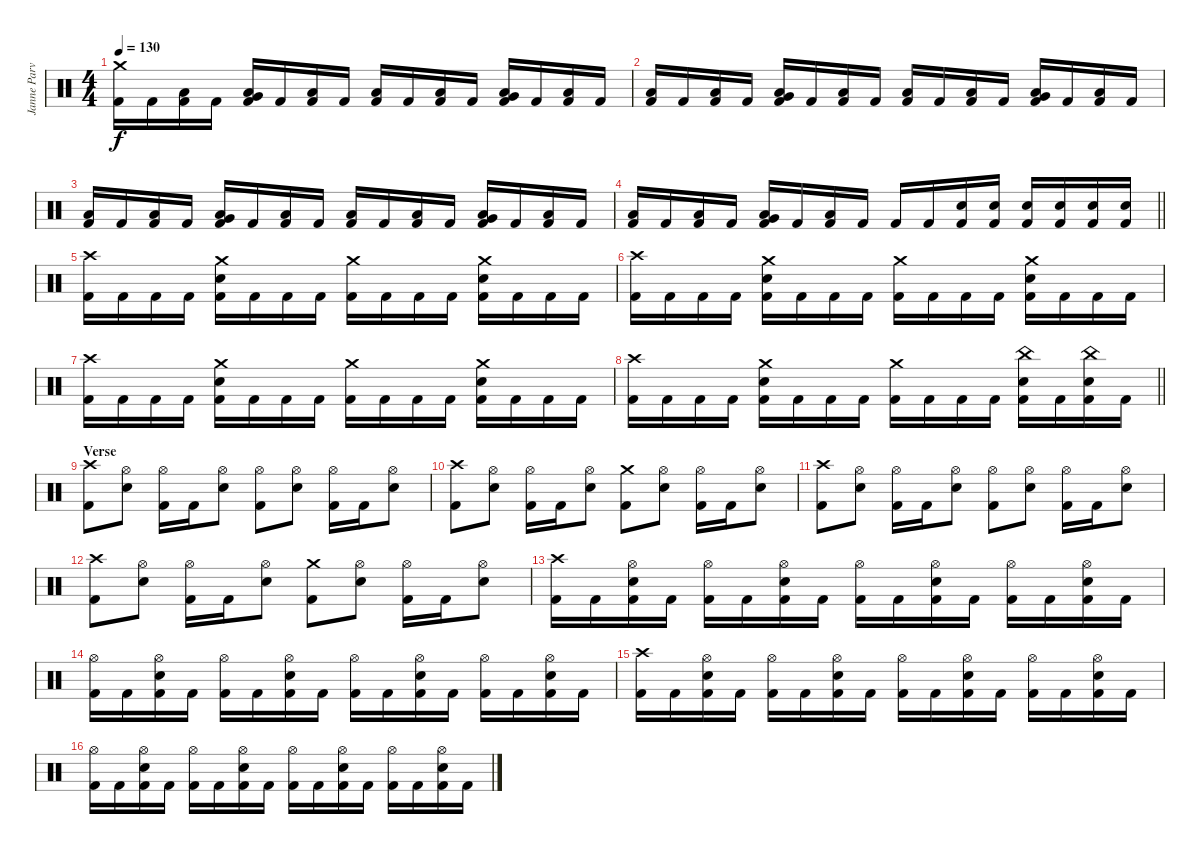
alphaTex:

\track ("Janne Parviainen" "Janne Parv") {instrument percussion}
\staff {score}
\articulation defaults
\ts (4 4)
\tempo 130
\clef neutral
\ks c
("Crash medium (hit)" "Kick (hit) 2").16{dy f} "Kick (hit) 2".16 ("Low Floor Tom (hit)" "Kick (hit) 2").16 "Kick (hit) 2".16 ("Very Low Tom (hit)" "Low Floor Tom (hit)" "Kick (hit) 2").16 "Kick (hit) 2".16 ("Low Floor Tom (hit)" "Kick (hit) 2").16 "Kick (hit) 2".16 ("Low Floor Tom (hit)" "Kick (hit) 2").16 "Kick (hit) 2".16 ("Low Floor Tom (hit)" "Kick (hit) 2").16 "Kick (hit) 2".16 ("Very Low Tom (hit)" "Low Floor Tom (hit)" "Kick (hit) 2").16 "Kick (hit) 2".16 ("Low Floor Tom (hit)" "Kick (hit) 2").16 "Kick (hit) 2".16 |
("Low Floor Tom (hit)" "Kick (hit) 2").16 "Kick (hit) 2".16 ("Low Floor Tom (hit)" "Kick (hit) 2").16 "Kick (hit) 2".16 ("Very Low Tom (hit)" "Low Floor Tom (hit)" "Kick (hit) 2").16 "Kick (hit) 2".16 ("Low Floor Tom (hit)" "Kick (hit) 2").16 "Kick (hit) 2".16 ("Low Floor Tom (hit)" "Kick (hit) 2").16 "Kick (hit) 2".16 ("Low Floor Tom (hit)" "Kick (hit) 2").16 "Kick (hit) 2".16 ("Very Low Tom (hit)" "Low Floor Tom (hit)" "Kick (hit) 2").16 "Kick (hit) 2".16 ("Low Floor Tom (hit)" "Kick (hit) 2").16 "Kick (hit) 2".16 |
("Low Floor Tom (hit)" "Kick (hit) 2").16 "Kick (hit) 2".16 ("Low Floor Tom (hit)" "Kick (hit) 2").16 "Kick (hit) 2".16 ("Very Low Tom (hit)" "Low Floor Tom (hit)" "Kick (hit) 2").16 "Kick (hit) 2".16 ("Low Floor Tom (hit)" "Kick (hit) 2").16 "Kick (hit) 2".16 ("Low Floor Tom (hit)" "Kick (hit) 2").16 "Kick (hit) 2".16 ("Low Floor Tom (hit)" "Kick (hit) 2").16 "Kick (hit) 2".16 ("Very Low Tom (hit)" "Low Floor Tom (hit)" "Kick (hit) 2").16 "Kick (hit) 2".16 ("Low Floor Tom (hit)" "Kick (hit) 2").16 "Kick (hit) 2".16 |
\barLineRight lightlight
("Low Floor Tom (hit)" "Kick (hit) 2").16 "Kick (hit) 2".16 ("Low Floor Tom (hit)" "Kick (hit) 2").16 "Kick (hit) 2".16 ("Very Low Tom (hit)" "Low Floor Tom (hit)" "Kick (hit) 2").16 "Kick (hit) 2".16 ("Low Floor Tom (hit)" "Kick (hit) 2").16 "Kick (hit) 2".16 "Kick (hit) 2".16 "Kick (hit) 2".16 ("Electric Snare (hit)" "Kick (hit) 2").16 ("Electric Snare (hit)" "Kick (hit) 2").16 ("Electric Snare (hit)" "Kick (hit) 2").16 ("Electric Snare (hit)" "Kick (hit) 2").16 ("Electric Snare (hit)" "Kick (hit) 2").16 ("Electric Snare (hit)" "Kick (hit) 2").16 |
\section ("" "")
("Crash high (hit)" "Kick (hit) 2").16 "Kick (hit) 2".16 "Kick (hit) 2".16 "Kick (hit) 2".16 ("Crash medium (hit)" "Electric Snare (hit)" "Kick (hit) 2").16 "Kick (hit) 2".16 "Kick (hit) 2".16 "Kick (hit) 2".16 ("Crash medium (hit)" "Kick (hit) 2").16 "Kick (hit) 2".16 "Kick (hit) 2".16 "Kick (hit) 2".16 ("Crash medium (hit)" "Electric Snare (hit)" "Kick (hit) 2").16 "Kick (hit) 2".16 "Kick (hit) 2".16 "Kick (hit) 2".16 |
("Crash high (hit)" "Kick (hit) 2").16 "Kick (hit) 2".16 "Kick (hit) 2".16 "Kick (hit) 2".16 ("Crash medium (hit)" "Electric Snare (hit)" "Kick (hit) 2").16 "Kick (hit) 2".16 "Kick (hit) 2".16 "Kick (hit) 2".16 ("Crash medium (hit)" "Kick (hit) 2").16 "Kick (hit) 2".16 "Kick (hit) 2".16 "Kick (hit) 2".16 ("Crash medium (hit)" "Electric Snare (hit)" "Kick (hit) 2").16 "Kick (hit) 2".16 "Kick (hit) 2".16 "Kick (hit) 2".16 |
("Crash high (hit)" "Kick (hit) 2").16 "Kick (hit) 2".16 "Kick (hit) 2".16 "Kick (hit) 2".16 ("Crash medium (hit)" "Electric Snare (hit)" "Kick (hit) 2").16 "Kick (hit) 2".16 "Kick (hit) 2".16 "Kick (hit) 2".16 ("Crash medium (hit)" "Kick (hit) 2").16 "Kick (hit) 2".16 "Kick (hit) 2".16 "Kick (hit) 2".16 ("Crash medium (hit)" "Electric Snare (hit)" "Kick (hit) 2").16 "Kick (hit) 2".16 "Kick (hit) 2".16 "Kick (hit) 2".16 |
\barLineRight lightlight
("Crash high (hit)" "Kick (hit) 2").16 "Kick (hit) 2".16 "Kick (hit) 2".16 "Kick (hit) 2".16 ("Crash medium (hit)" "Electric Snare (hit)" "Kick (hit) 2").16 "Kick (hit) 2".16 "Kick (hit) 2".16 "Kick (hit) 2".16 ("Crash medium (hit)" "Kick (hit) 2").16 "Kick (hit) 2".16 "Kick (hit) 2".16 "Kick (hit) 2".16 ("China (hit)" "Electric Snare (hit)" "Kick (hit) 2").16 "Kick (hit) 2".16 ("China (hit)" "Electric Snare (hit)" "Kick (hit) 2").16 "Kick (hit) 2".16 |
\section ("" "Verse")
("Crash high (hit)" "Kick (hit) 2").8 ("Hi-Hat (open)" "Electric Snare (hit)").8 ("Hi-Hat (open)" "Kick (hit) 2").16 "Kick (hit) 2".16 ("Hi-Hat (open)" "Electric Snare (hit)").8 ("Hi-Hat (open)" "Kick (hit) 2").8 ("Hi-Hat (open)" "Electric Snare (hit)").8 ("Hi-Hat (open)" "Kick (hit) 2").16 "Kick (hit) 2".16 ("Hi-Hat (open)" "Electric Snare (hit)").8 |
("Crash high (hit)" "Kick (hit) 2").8 ("Hi-Hat (open)" "Electric Snare (hit)").8 ("Hi-Hat (open)" "Kick (hit) 2").16 "Kick (hit) 2".16 ("Hi-Hat (open)" "Electric Snare (hit)").8 ("Crash medium (hit)" "Kick (hit) 2").8 ("Hi-Hat (open)" "Electric Snare (hit)").8 ("Hi-Hat (open)" "Kick (hit) 2").16 "Kick (hit) 2".16 ("Hi-Hat (open)" "Electric Snare (hit)").8 |
("Crash high (hit)" "Kick (hit) 2").8 ("Hi-Hat (open)" "Electric Snare (hit)").8 ("Hi-Hat (open)" "Kick (hit) 2").16 "Kick (hit) 2".16 ("Hi-Hat (open)" "Electric Snare (hit)").8 ("Hi-Hat (open)" "Kick (hit) 2").8 ("Hi-Hat (open)" "Electric Snare (hit)").8 ("Hi-Hat (open)" "Kick (hit) 2").16 "Kick (hit) 2".16 ("Hi-Hat (open)" "Electric Snare (hit)").8 |
("Crash high (hit)" "Kick (hit) 2").8 ("Hi-Hat (open)" "Electric Snare (hit)").8 ("Hi-Hat (open)" "Kick (hit) 2").16 "Kick (hit) 2".16 ("Hi-Hat (open)" "Electric Snare (hit)").8 ("Crash medium (hit)" "Kick (hit) 2").8 ("Hi-Hat (open)" "Electric Snare (hit)").8 ("Hi-Hat (open)" "Kick (hit) 2").16 "Kick (hit) 2".16 ("Hi-Hat (open)" "Electric Snare (hit)").8 |
("Crash high (hit)" "Kick (hit) 2").16 "Kick (hit) 2".16 ("Hi-Hat (open)" "Electric Snare (hit)" "Kick (hit) 2").16 "Kick (hit) 2".16 ("Hi-Hat (open)" "Kick (hit) 2").16 "Kick (hit) 2".16 ("Hi-Hat (open)" "Electric Snare (hit)" "Kick (hit) 2").16 "Kick (hit) 2".16 ("Hi-Hat (open)" "Kick (hit) 2").16 "Kick (hit) 2".16 ("Hi-Hat (open)" "Electric Snare (hit)" "Kick (hit) 2").16 "Kick (hit) 2".16 ("Hi-Hat (open)" "Kick (hit) 2").16 "Kick (hit) 2".16 ("Hi-Hat (open)" "Electric Snare (hit)" "Kick (hit) 2").16 "Kick (hit) 2".16 |
("Hi-Hat (open)" "Kick (hit) 2").16 "Kick (hit) 2".16 ("Hi-Hat (open)" "Electric Snare (hit)" "Kick (hit) 2").16 "Kick (hit) 2".16 ("Hi-Hat (open)" "Kick (hit) 2").16 "Kick (hit) 2".16 ("Hi-Hat (open)" "Electric Snare (hit)" "Kick (hit) 2").16 "Kick (hit) 2".16 ("Hi-Hat (open)" "Kick (hit) 2").16 "Kick (hit) 2".16 ("Hi-Hat (open)" "Electric Snare (hit)" "Kick (hit) 2").16 "Kick (hit) 2".16 ("Hi-Hat (open)" "Kick (hit) 2").16 "Kick (hit) 2".16 ("Hi-Hat (open)" "Electric Snare (hit)" "Kick (hit) 2").16 "Kick (hit) 2".16 |
("Crash high (hit)" "Kick (hit) 2").16 "Kick (hit) 2".16 ("Hi-Hat (open)" "Electric Snare (hit)" "Kick (hit) 2").16 "Kick (hit) 2".16 ("Hi-Hat (open)" "Kick (hit) 2").16 "Kick (hit) 2".16 ("Hi-Hat (open)" "Electric Snare (hit)" "Kick (hit) 2").16 "Kick (hit) 2".16 ("Hi-Hat (open)" "Kick (hit) 2").16 "Kick (hit) 2".16 ("Hi-Hat (open)" "Electric Snare (hit)" "Kick (hit) 2").16 "Kick (hit) 2".16 ("Hi-Hat (open)" "Kick (hit) 2").16 "Kick (hit) 2".16 ("Hi-Hat (open)" "Electric Snare (hit)" "Kick (hit) 2").16 "Kick (hit) 2".16 |
("Hi-Hat (open)" "Kick (hit) 2").16 "Kick (hit) 2".16 ("Hi-Hat (open)" "Electric Snare (hit)" "Kick (hit) 2").16 "Kick (hit) 2".16 ("Hi-Hat (open)" "Kick (hit) 2").16 "Kick (hit) 2".16 ("Hi-Hat (open)" "Electric Snare (hit)" "Kick (hit) 2").16 "Kick (hit) 2".16 ("Hi-Hat (open)" "Kick (hit) 2").16 "Kick (hit) 2".16 ("Hi-Hat (open)" "Electric Snare (hit)" "Kick (hit) 2").16 "Kick (hit) 2".16 ("Hi-Hat (open)" "Kick (hit) 2").16 "Kick (hit) 2".16 ("Hi-Hat (open)" "Electric Snare (hit)" "Kick (hit) 2").16 "Kick (hit) 2".16
